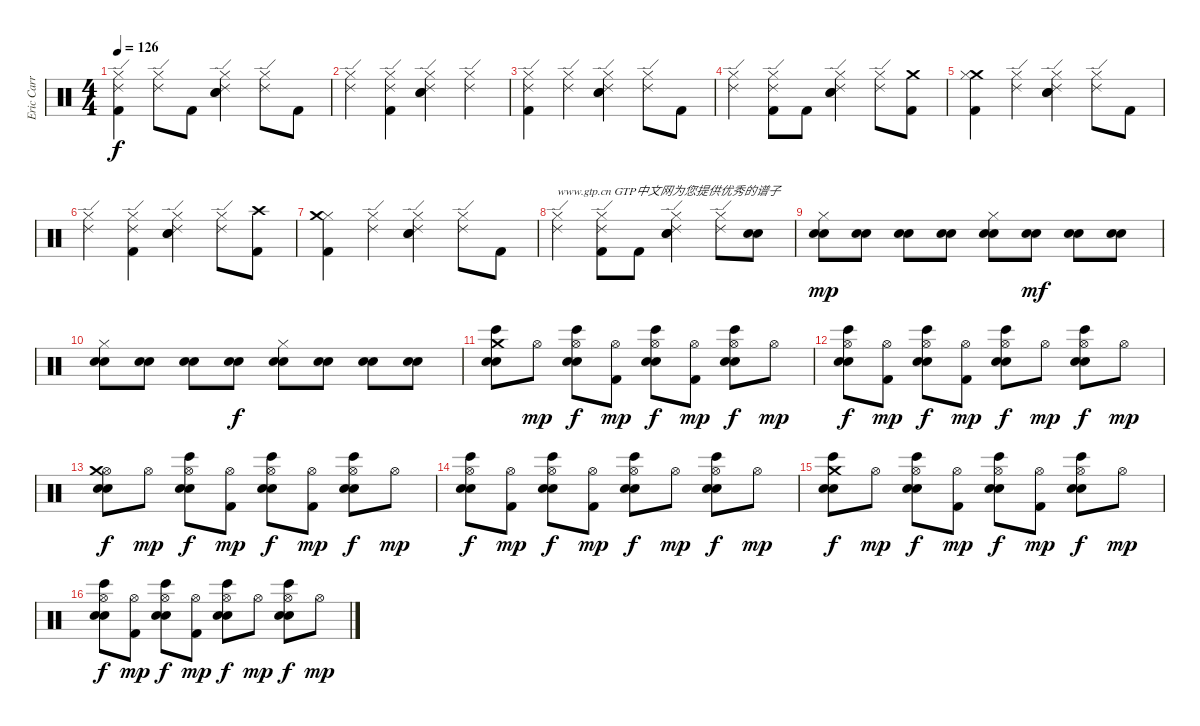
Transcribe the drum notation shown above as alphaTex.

\track ("Eric Carr" "Eric Carr") {instrument percussion}
\staff {score}
\articulation defaults
\ts (4 4)
\tempo 126
\clef neutral
\ks c
("Hi-Hat (closed)" "Ride (edge) 2" "Kick (hit) 2").4{dy f} ("Hi-Hat (closed)" "Ride (edge) 2").8 "Kick (hit) 2".8 ("Hi-Hat (closed)" "Electric Snare (hit)" "Ride (edge) 2" "Snare (hit) 2").4 ("Hi-Hat (closed)" "Ride (edge) 2").8 "Kick (hit) 2".8 |
("Hi-Hat (closed)" "Ride (edge) 2").4 ("Hi-Hat (closed)" "Ride (edge) 2" "Kick (hit) 2").4 ("Hi-Hat (closed)" "Ride (edge) 2" "Electric Snare (hit)" "Snare (hit) 2").4 ("Hi-Hat (closed)" "Ride (edge) 2").4 |
("Hi-Hat (closed)" "Ride (edge) 2" "Kick (hit) 2").4 ("Hi-Hat (closed)" "Ride (edge) 2").4 ("Hi-Hat (closed)" "Electric Snare (hit)" "Ride (edge) 2" "Snare (hit) 2").4 ("Hi-Hat (closed)" "Ride (edge) 2").8 "Kick (hit) 2".8 |
("Hi-Hat (closed)" "Ride (edge) 2").4 ("Hi-Hat (closed)" "Ride (edge) 2" "Kick (hit) 2").8 "Kick (hit) 2".8 ("Hi-Hat (closed)" "Ride (edge) 2" "Electric Snare (hit)" "Snare (hit) 2").4 ("Hi-Hat (closed)" "Ride (edge) 2").8 ("Crash medium (hit)" "Kick (hit) 2").8 |
("Crash medium (hit)" "Hi-Hat (closed)" "Kick (hit) 2").4 ("Hi-Hat (closed)" "Ride (edge) 2").4 ("Hi-Hat (closed)" "Electric Snare (hit)" "Ride (edge) 2" "Snare (hit) 2").4 ("Hi-Hat (closed)" "Ride (edge) 2").8 "Kick (hit) 2".8 |
("Hi-Hat (closed)" "Ride (edge) 2").4 ("Hi-Hat (closed)" "Ride (edge) 2" "Kick (hit) 2").4 ("Hi-Hat (closed)" "Ride (edge) 2" "Electric Snare (hit)" "Snare (hit) 2").4 ("Hi-Hat (closed)" "Ride (edge) 2").8 ("Crash high (hit)" "Kick (hit) 2").8 |
("Hi-Hat (closed)" "Crash medium (hit)" "Kick (hit) 2").4 ("Hi-Hat (closed)" "Ride (edge) 2").4 ("Hi-Hat (closed)" "Electric Snare (hit)" "Ride (edge) 2" "Snare (hit) 2").4 ("Hi-Hat (closed)" "Ride (edge) 2").8 "Kick (hit) 2".8 |
("Hi-Hat (closed)" "Ride (edge) 2").4{txt "www.gtp.cn GTP中文网为您提供优秀的谱子"} ("Hi-Hat (closed)" "Ride (edge) 2" "Kick (hit) 2").8 "Kick (hit) 2".8 ("Hi-Hat (closed)" "Ride (edge) 2" "Electric Snare (hit)" "Snare (hit) 2").4 ("Hi-Hat (closed)" "Ride (edge) 2").8 ("Electric Snare (hit)" "Snare (hit) 2").8 |
("Hi-Hat (closed)" "Electric Snare (hit)" "Snare (hit) 2").8{dy mp} ("Electric Snare (hit)" "Snare (hit) 2").8 ("Electric Snare (hit)" "Snare (hit) 2").8 ("Electric Snare (hit)" "Snare (hit) 2").8 ("Hi-Hat (closed)" "Electric Snare (hit)" "Snare (hit) 2").8 ("Electric Snare (hit)" "Snare (hit) 2").8{dy mf} ("Electric Snare (hit)" "Snare (hit) 2").8 ("Electric Snare (hit)" "Snare (hit) 2").8 |
("Hi-Hat (closed)" "Electric Snare (hit)" "Snare (hit) 2").8 ("Electric Snare (hit)" "Snare (hit) 2").8 ("Electric Snare (hit)" "Snare (hit) 2").8 ("Electric Snare (hit)" "Snare (hit) 2").8{dy f} ("Hi-Hat (closed)" "Electric Snare (hit)" "Snare (hit) 2").8 ("Electric Snare (hit)" "Snare (hit) 2").8 ("Electric Snare (hit)" "Snare (hit) 2").8 ("Electric Snare (hit)" "Snare (hit) 2").8 |
("Crash medium (hit)" "Bongo High (hit)" "Snare (hit) 2" "Electric Snare (hit)").8 "Hi-Hat (open)".8{dy mp} ("Hi-Hat (open)" "Bongo High (hit)" "Electric Snare (hit)" "Snare (hit) 2").8{dy f} ("Hi-Hat (open)" "Kick (hit) 2").8{dy mp} ("Hi-Hat (open)" "Bongo High (hit)" "Electric Snare (hit)" "Snare (hit) 2").8{dy f} ("Hi-Hat (open)" "Kick (hit) 2").8{dy mp} ("Hi-Hat (open)" "Bongo High (hit)" "Electric Snare (hit)" "Snare (hit) 2").8{dy f} "Hi-Hat (open)".8{dy mp} |
("Bongo High (hit)" "Hi-Hat (open)" "Electric Snare (hit)" "Snare (hit) 2").8{dy f} ("Hi-Hat (open)" "Kick (hit) 2").8{dy mp} ("Bongo High (hit)" "Hi-Hat (open)" "Electric Snare (hit)" "Snare (hit) 2").8{dy f} ("Hi-Hat (open)" "Kick (hit) 2").8{dy mp} ("Bongo High (hit)" "Hi-Hat (open)" "Electric Snare (hit)" "Snare (hit) 2").8{dy f} "Hi-Hat (open)".8{dy mp} ("Bongo High (hit)" "Hi-Hat (open)" "Electric Snare (hit)" "Snare (hit) 2").8{dy f} "Hi-Hat (open)".8{dy mp} |
("Hi-Hat (open)" "Crash medium (hit)" "Snare (hit) 2" "Electric Snare (hit)").8{dy f} "Hi-Hat (open)".8{dy mp} ("Hi-Hat (open)" "Bongo High (hit)" "Electric Snare (hit)" "Snare (hit) 2").8{dy f} ("Hi-Hat (open)" "Kick (hit) 2").8{dy mp} ("Hi-Hat (open)" "Bongo High (hit)" "Electric Snare (hit)" "Snare (hit) 2").8{dy f} ("Hi-Hat (open)" "Kick (hit) 2").8{dy mp} ("Hi-Hat (open)" "Bongo High (hit)" "Electric Snare (hit)" "Snare (hit) 2").8{dy f} "Hi-Hat (open)".8{dy mp} |
("Bongo High (hit)" "Hi-Hat (open)" "Electric Snare (hit)" "Snare (hit) 2").8{dy f} ("Hi-Hat (open)" "Kick (hit) 2").8{dy mp} ("Bongo High (hit)" "Hi-Hat (open)" "Electric Snare (hit)" "Snare (hit) 2").8{dy f} ("Hi-Hat (open)" "Kick (hit) 2").8{dy mp} ("Bongo High (hit)" "Hi-Hat (open)" "Electric Snare (hit)" "Snare (hit) 2").8{dy f} "Hi-Hat (open)".8{dy mp} ("Snare (hit) 2" "Bongo High (hit)" "Hi-Hat (open)" "Electric Snare (hit)").8{dy f} "Hi-Hat (open)".8{dy mp} |
("Crash medium (hit)" "Bongo High (hit)" "Snare (hit) 2" "Electric Snare (hit)").8{dy f} "Hi-Hat (open)".8{dy mp} ("Hi-Hat (open)" "Bongo High (hit)" "Electric Snare (hit)" "Snare (hit) 2").8{dy f} ("Hi-Hat (open)" "Kick (hit) 2").8{dy mp} ("Hi-Hat (open)" "Bongo High (hit)" "Electric Snare (hit)" "Snare (hit) 2").8{dy f} ("Hi-Hat (open)" "Kick (hit) 2").8{dy mp} ("Hi-Hat (open)" "Bongo High (hit)" "Electric Snare (hit)" "Snare (hit) 2").8{dy f} "Hi-Hat (open)".8{dy mp} |
("Bongo High (hit)" "Hi-Hat (open)" "Electric Snare (hit)" "Snare (hit) 2").8{dy f} ("Hi-Hat (open)" "Kick (hit) 2").8{dy mp} ("Bongo High (hit)" "Hi-Hat (open)" "Electric Snare (hit)" "Snare (hit) 2").8{dy f} ("Hi-Hat (open)" "Kick (hit) 2").8{dy mp} ("Bongo High (hit)" "Hi-Hat (open)" "Electric Snare (hit)" "Snare (hit) 2").8{dy f} "Hi-Hat (open)".8{dy mp} ("Snare (hit) 2" "Bongo High (hit)" "Hi-Hat (open)" "Electric Snare (hit)").8{dy f} "Hi-Hat (open)".8{dy mp}
